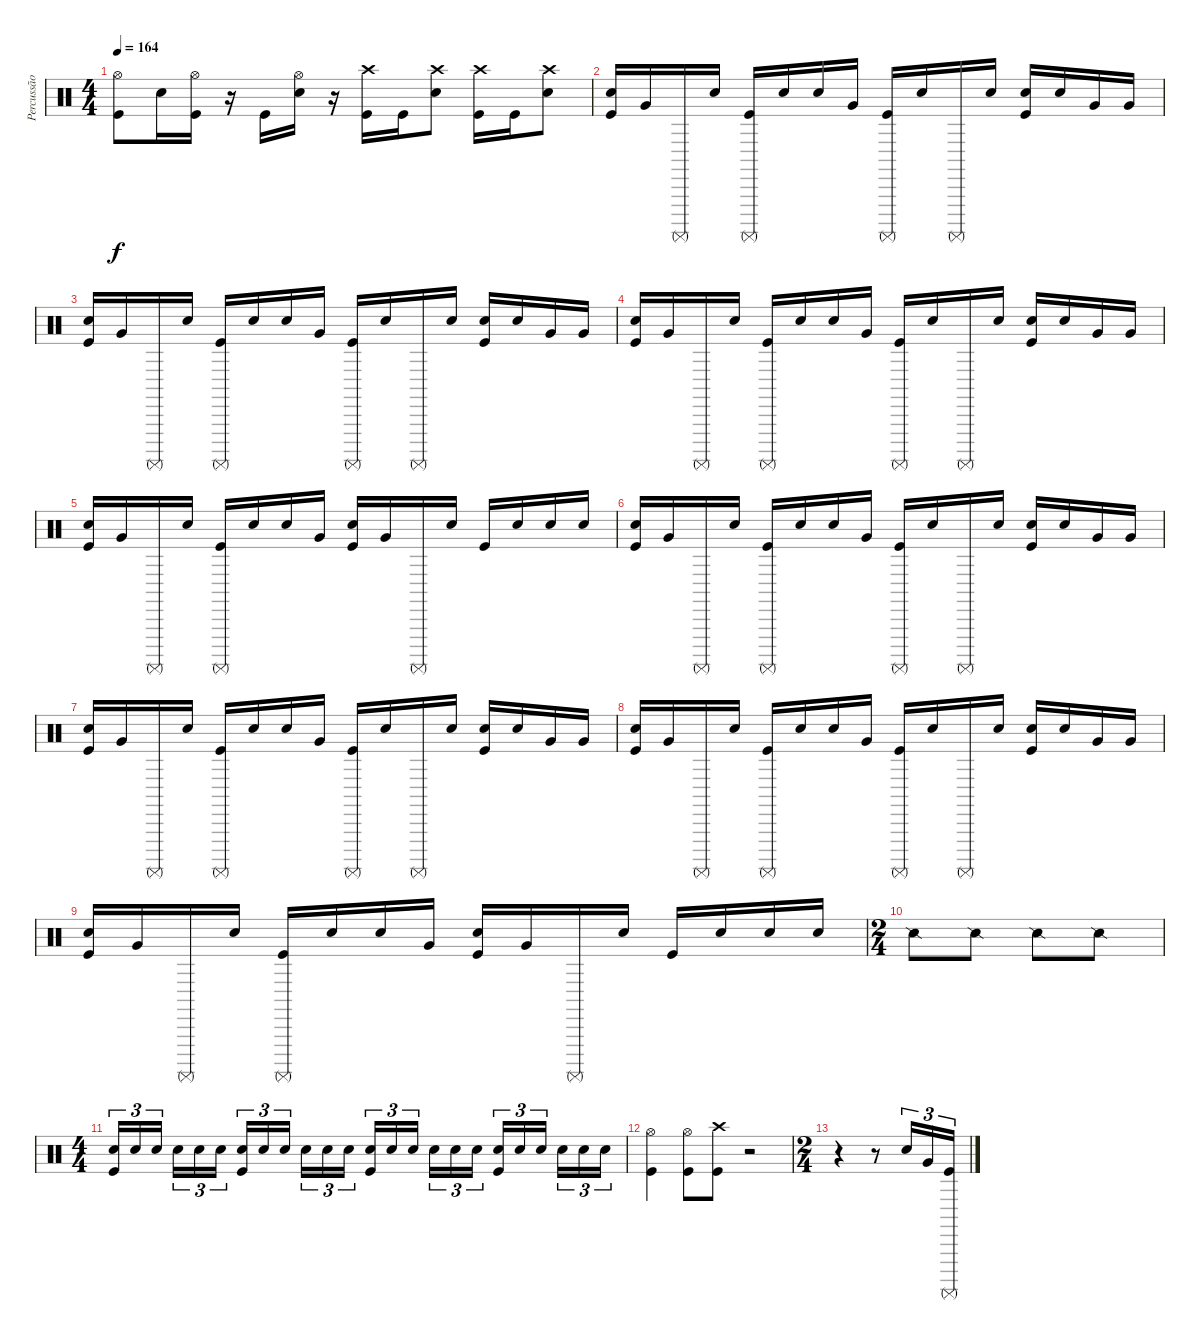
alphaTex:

\track ("Percussão" "Percussão") {instrument percussion}
\staff {score}
\articulation defaults
\ts (4 4)
\tempo 164
\clef neutral
\ks c
("Hi-Hat (open)" "Kick (hit)").8{dy f} "Electric Snare (hit)".16 ("Hi-Hat (open)" "Kick (hit)").16 r.16 "Kick (hit)".16 ("Hi-Hat (open)" "Electric Snare (hit)").16 r.16 ("Crash high (hit)" "Kick (hit)").16 "Kick (hit)".16 ("Crash high (hit)" "Electric Snare (hit)").8 ("Crash high (hit)" "Kick (hit)").16 "Kick (hit)".16 ("Crash high (hit)" "Electric Snare (hit)").8 |
("Electric Snare (hit)" "Kick (hit)").16 "Very Low Tom (hit)".16 "Surdo (mute)".16 "Electric Snare (hit)".16 ("Surdo (mute)" "Kick (hit)").16 "Electric Snare (hit)".16 "Electric Snare (hit)".16 "Very Low Tom (hit)".16 ("Surdo (mute)" "Kick (hit)").16 "Electric Snare (hit)".16 "Surdo (mute)".16 "Electric Snare (hit)".16 ("Electric Snare (hit)" "Kick (hit)").16 "Electric Snare (hit)".16 "Very Low Tom (hit)".16 "Very Low Tom (hit)".16 |
("Electric Snare (hit)" "Kick (hit)").16 "Very Low Tom (hit)".16 "Surdo (mute)".16 "Electric Snare (hit)".16 ("Surdo (mute)" "Kick (hit)").16 "Electric Snare (hit)".16 "Electric Snare (hit)".16 "Very Low Tom (hit)".16 ("Surdo (mute)" "Kick (hit)").16 "Electric Snare (hit)".16 "Surdo (mute)".16 "Electric Snare (hit)".16 ("Electric Snare (hit)" "Kick (hit)").16 "Electric Snare (hit)".16 "Very Low Tom (hit)".16 "Very Low Tom (hit)".16 |
("Electric Snare (hit)" "Kick (hit)").16 "Very Low Tom (hit)".16 "Surdo (mute)".16 "Electric Snare (hit)".16 ("Surdo (mute)" "Kick (hit)").16 "Electric Snare (hit)".16 "Electric Snare (hit)".16 "Very Low Tom (hit)".16 ("Surdo (mute)" "Kick (hit)").16 "Electric Snare (hit)".16 "Surdo (mute)".16 "Electric Snare (hit)".16 ("Electric Snare (hit)" "Kick (hit)").16 "Electric Snare (hit)".16 "Very Low Tom (hit)".16 "Very Low Tom (hit)".16 |
("Electric Snare (hit)" "Kick (hit)").16 "Very Low Tom (hit)".16 "Surdo (mute)".16 "Electric Snare (hit)".16 ("Surdo (mute)" "Kick (hit)").16 "Electric Snare (hit)".16 "Electric Snare (hit)".16 "Very Low Tom (hit)".16 ("Electric Snare (hit)" "Kick (hit)").16 "Very Low Tom (hit)".16 "Surdo (mute)".16 "Electric Snare (hit)".16 "Kick (hit)".16 "Electric Snare (hit)".16 "Electric Snare (hit)".16 "Electric Snare (hit)".16 |
("Electric Snare (hit)" "Kick (hit)").16 "Very Low Tom (hit)".16 "Surdo (mute)".16 "Electric Snare (hit)".16 ("Surdo (mute)" "Kick (hit)").16 "Electric Snare (hit)".16 "Electric Snare (hit)".16 "Very Low Tom (hit)".16 ("Surdo (mute)" "Kick (hit)").16 "Electric Snare (hit)".16 "Surdo (mute)".16 "Electric Snare (hit)".16 ("Electric Snare (hit)" "Kick (hit)").16 "Electric Snare (hit)".16 "Very Low Tom (hit)".16 "Very Low Tom (hit)".16 |
("Electric Snare (hit)" "Kick (hit)").16 "Very Low Tom (hit)".16 "Surdo (mute)".16 "Electric Snare (hit)".16 ("Surdo (mute)" "Kick (hit)").16 "Electric Snare (hit)".16 "Electric Snare (hit)".16 "Very Low Tom (hit)".16 ("Surdo (mute)" "Kick (hit)").16 "Electric Snare (hit)".16 "Surdo (mute)".16 "Electric Snare (hit)".16 ("Electric Snare (hit)" "Kick (hit)").16 "Electric Snare (hit)".16 "Very Low Tom (hit)".16 "Very Low Tom (hit)".16 |
("Electric Snare (hit)" "Kick (hit)").16 "Very Low Tom (hit)".16 "Surdo (mute)".16 "Electric Snare (hit)".16 ("Surdo (mute)" "Kick (hit)").16 "Electric Snare (hit)".16 "Electric Snare (hit)".16 "Very Low Tom (hit)".16 ("Surdo (mute)" "Kick (hit)").16 "Electric Snare (hit)".16 "Surdo (mute)".16 "Electric Snare (hit)".16 ("Electric Snare (hit)" "Kick (hit)").16 "Electric Snare (hit)".16 "Very Low Tom (hit)".16 "Very Low Tom (hit)".16 |
("Electric Snare (hit)" "Kick (hit)").16 "Very Low Tom (hit)".16 "Surdo (mute)".16 "Electric Snare (hit)".16 ("Surdo (mute)" "Kick (hit)").16 "Electric Snare (hit)".16 "Electric Snare (hit)".16 "Very Low Tom (hit)".16 ("Electric Snare (hit)" "Kick (hit)").16 "Very Low Tom (hit)".16 "Surdo (mute)".16 "Electric Snare (hit)".16 "Kick (hit)".16 "Electric Snare (hit)".16 "Electric Snare (hit)".16 "Electric Snare (hit)".16 |
\ts (2 4)
"Snare (side stick) 2".8 "Snare (side stick) 2".8 "Snare (side stick) 2".8 "Snare (side stick) 2".8 |
\ts (4 4)
("Electric Snare (hit)" "Kick (hit)").16{tu (3 2)} "Electric Snare (hit)".16{tu (3 2)} "Electric Snare (hit)".16{tu (3 2) beam splitsecondary} "Electric Snare (hit)".16{tu (3 2)} "Electric Snare (hit)".16{tu (3 2)} "Electric Snare (hit)".16{tu (3 2)} ("Electric Snare (hit)" "Kick (hit)").16{tu (3 2)} "Electric Snare (hit)".16{tu (3 2)} "Electric Snare (hit)".16{tu (3 2) beam splitsecondary} "Electric Snare (hit)".16{tu (3 2)} "Electric Snare (hit)".16{tu (3 2)} "Electric Snare (hit)".16{tu (3 2)} ("Electric Snare (hit)" "Kick (hit)").16{tu (3 2)} "Electric Snare (hit)".16{tu (3 2)} "Electric Snare (hit)".16{tu (3 2) beam splitsecondary} "Electric Snare (hit)".16{tu (3 2)} "Electric Snare (hit)".16{tu (3 2)} "Electric Snare (hit)".16{tu (3 2)} ("Electric Snare (hit)" "Kick (hit)").16{tu (3 2)} "Electric Snare (hit)".16{tu (3 2)} "Electric Snare (hit)".16{tu (3 2) beam splitsecondary} "Electric Snare (hit)".16{tu (3 2)} "Electric Snare (hit)".16{tu (3 2)} "Electric Snare (hit)".16{tu (3 2)} |
("Hi-Hat (open)" "Kick (hit)").4 ("Hi-Hat (open)" "Kick (hit)").8 ("Crash high (hit)" "Kick (hit)").8 r.2 |
\ts (2 4)
r.4 r.8 "Electric Snare (hit)".16{tu (3 2)} "Very Low Tom (hit)".16{tu (3 2)} ("Surdo (mute)" "Kick (hit)").16{tu (3 2)}
